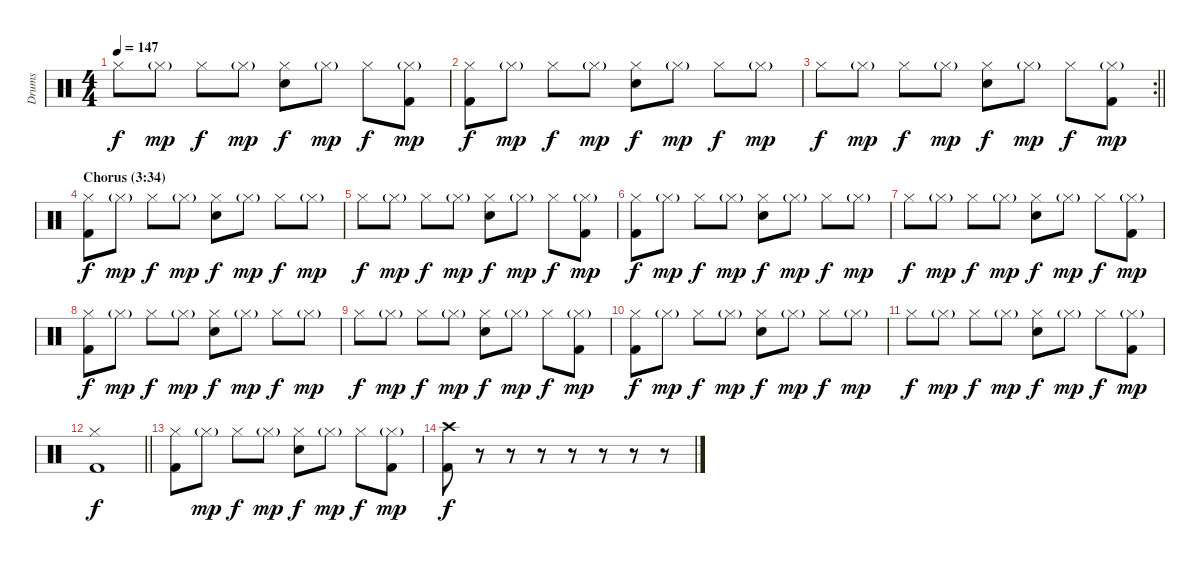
\track ("Drums" "Drums") {instrument percussion}
\staff {score}
\articulation defaults
\ts (4 4)
\tempo 147
\clef neutral
\ks c "Hi-Hat (closed)".8{dy f} "Hi-Hat (closed)"{g}.8{dy mp} "Hi-Hat (closed)".8{dy f} "Hi-Hat (closed)"{g}.8{dy mp}
("Hi-Hat (closed)" "Snare (hit) 2").8{dy f} "Hi-Hat (closed)"{g}.8{dy mp} "Hi-Hat (closed)".8{dy f} ("Hi-Hat (closed)"{g} "Kick (hit) 2").8{dy mp} |
("Hi-Hat (closed)" "Kick (hit) 2").8{dy f} "Hi-Hat (closed)"{g}.8{dy mp} "Hi-Hat (closed)".8{dy f} "Hi-Hat (closed)"{g}.8{dy mp} ("Hi-Hat (closed)" "Snare (hit) 2").8{dy f} "Hi-Hat (closed)"{g}.8{dy mp} "Hi-Hat (closed)".8{dy f} "Hi-Hat (closed)"{g}.8{dy mp} |
\rc 2
\barLineRight lightlight "Hi-Hat (closed)".8{dy f} "Hi-Hat (closed)"{g}.8{dy mp} "Hi-Hat (closed)".8{dy f} "Hi-Hat (closed)"{g}.8{dy mp}
("Hi-Hat (closed)" "Snare (hit) 2").8{dy f} "Hi-Hat (closed)"{g}.8{dy mp} "Hi-Hat (closed)".8{dy f} ("Hi-Hat (closed)"{g} "Kick (hit) 2").8{dy mp} |
\section ("" "Chorus (3:34)")
("Hi-Hat (closed)" "Kick (hit) 2").8{dy f} "Hi-Hat (closed)"{g}.8{dy mp} "Hi-Hat (closed)".8{dy f} "Hi-Hat (closed)"{g}.8{dy mp} ("Hi-Hat (closed)" "Snare (hit) 2").8{dy f} "Hi-Hat (closed)"{g}.8{dy mp} "Hi-Hat (closed)".8{dy f} "Hi-Hat (closed)"{g}.8{dy mp} |
"Hi-Hat (closed)".8{dy f} "Hi-Hat (closed)"{g}.8{dy mp} "Hi-Hat (closed)".8{dy f} "Hi-Hat (closed)"{g}.8{dy mp} ("Hi-Hat (closed)" "Snare (hit) 2").8{dy f} "Hi-Hat (closed)"{g}.8{dy mp} "Hi-Hat (closed)".8{dy f} ("Hi-Hat (closed)"{g} "Kick (hit) 2").8{dy mp} |
("Hi-Hat (closed)" "Kick (hit) 2").8{dy f} "Hi-Hat (closed)"{g}.8{dy mp} "Hi-Hat (closed)".8{dy f} "Hi-Hat (closed)"{g}.8{dy mp} ("Hi-Hat (closed)" "Snare (hit) 2").8{dy f} "Hi-Hat (closed)"{g}.8{dy mp} "Hi-Hat (closed)".8{dy f} "Hi-Hat (closed)"{g}.8{dy mp} |
"Hi-Hat (closed)".8{dy f} "Hi-Hat (closed)"{g}.8{dy mp} "Hi-Hat (closed)".8{dy f} "Hi-Hat (closed)"{g}.8{dy mp} ("Hi-Hat (closed)" "Snare (hit) 2").8{dy f} "Hi-Hat (closed)"{g}.8{dy mp} "Hi-Hat (closed)".8{dy f} ("Hi-Hat (closed)"{g} "Kick (hit) 2").8{dy mp} |
("Hi-Hat (closed)" "Kick (hit) 2").8{dy f} "Hi-Hat (closed)"{g}.8{dy mp} "Hi-Hat (closed)".8{dy f} "Hi-Hat (closed)"{g}.8{dy mp} ("Hi-Hat (closed)" "Snare (hit) 2").8{dy f} "Hi-Hat (closed)"{g}.8{dy mp} "Hi-Hat (closed)".8{dy f} "Hi-Hat (closed)"{g}.8{dy mp} |
"Hi-Hat (closed)".8{dy f} "Hi-Hat (closed)"{g}.8{dy mp} "Hi-Hat (closed)".8{dy f} "Hi-Hat (closed)"{g}.8{dy mp} ("Hi-Hat (closed)" "Snare (hit) 2").8{dy f} "Hi-Hat (closed)"{g}.8{dy mp} "Hi-Hat (closed)".8{dy f} ("Hi-Hat (closed)"{g} "Kick (hit) 2").8{dy mp} |
("Hi-Hat (closed)" "Kick (hit) 2").8{dy f} "Hi-Hat (closed)"{g}.8{dy mp} "Hi-Hat (closed)".8{dy f} "Hi-Hat (closed)"{g}.8{dy mp} ("Hi-Hat (closed)" "Snare (hit) 2").8{dy f} "Hi-Hat (closed)"{g}.8{dy mp} "Hi-Hat (closed)".8{dy f} "Hi-Hat (closed)"{g}.8{dy mp} |
"Hi-Hat (closed)".8{dy f} "Hi-Hat (closed)"{g}.8{dy mp} "Hi-Hat (closed)".8{dy f} "Hi-Hat (closed)"{g}.8{dy mp} ("Hi-Hat (closed)" "Snare (hit) 2").8{dy f} "Hi-Hat (closed)"{g}.8{dy mp} "Hi-Hat (closed)".8{dy f} ("Hi-Hat (closed)"{g} "Kick (hit) 2").8{dy mp} |
\barLineRight lightlight
("Hi-Hat (closed)" "Kick (hit) 2").1{dy f} |
("Hi-Hat (closed)" "Kick (hit) 2").8 "Hi-Hat (closed)"{g}.8{dy mp} "Hi-Hat (closed)".8{dy f} "Hi-Hat (closed)"{g}.8{dy mp} ("Hi-Hat (closed)" "Snare (hit) 2").8{dy f} "Hi-Hat (closed)"{g}.8{dy mp} "Hi-Hat (closed)".8{dy f} ("Hi-Hat (closed)"{g} "Kick (hit) 2").8{dy mp} |
("Crash high (hit)" "Kick (hit) 2").8{dy f} r.8 r.8 r.8 r.8 r.8 r.8 r.8
